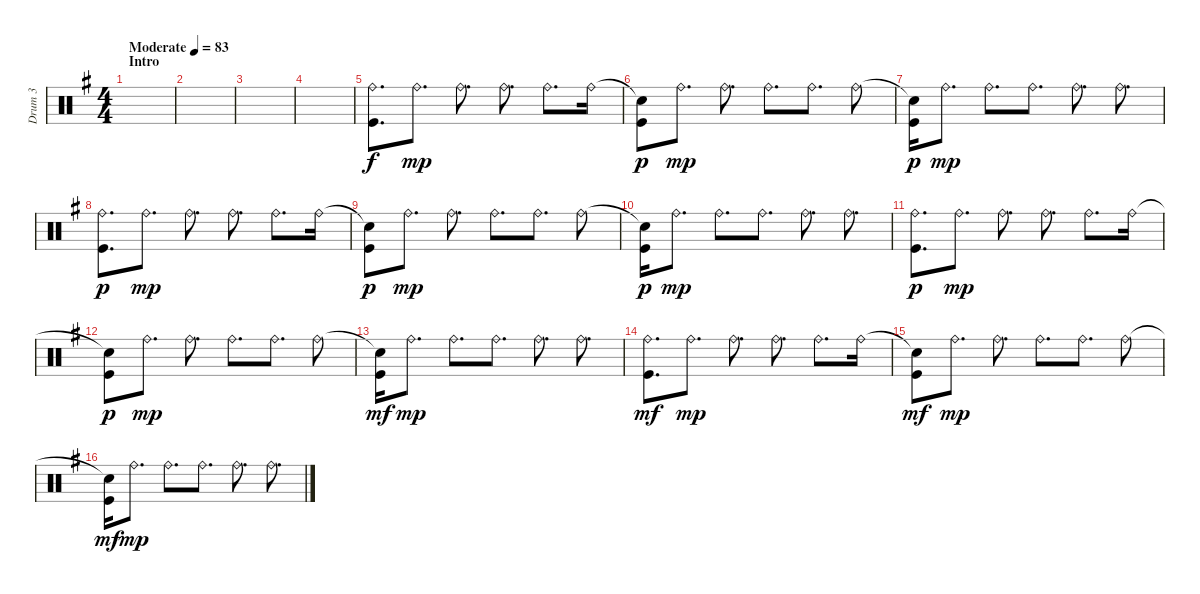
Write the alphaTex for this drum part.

\track ("Drum 3" "Drum 3") {instrument percussion}
\staff {score}
\articulation defaults
\ts (4 4)
\section ("" "Intro")
\tempo (83 "Moderate")
\clef neutral
\ks eminor
|
|
|
|
("Ride (bell)" "Kick (hit)").8{d} "Ride (bell)".8{d dy mp} "Ride (bell)".8{d} "Ride (bell)".8{d} "Ride (bell)".8{d} "Ride (bell)".16 |
("Snare (hit)"{t} "Kick (hit)").8{dy p} "Ride (bell)".8{d dy mp} "Ride (bell)".8{d} "Ride (bell)".8{d} "Ride (bell)".8{d} "Ride (bell)".8 |
("Snare (hit)"{t} "Kick (hit)").16{dy p} "Ride (bell)".8{d dy mp} "Ride (bell)".8{d} "Ride (bell)".8{d} "Ride (bell)".8{d} "Ride (bell)".8{d} |
("Ride (bell)" "Kick (hit)").8{d dy p} "Ride (bell)".8{d dy mp} "Ride (bell)".8{d} "Ride (bell)".8{d} "Ride (bell)".8{d} "Ride (bell)".16 |
("Snare (hit)"{t} "Kick (hit)").8{dy p} "Ride (bell)".8{d dy mp} "Ride (bell)".8{d} "Ride (bell)".8{d} "Ride (bell)".8{d} "Ride (bell)".8 |
("Snare (hit)"{t} "Kick (hit)").16{dy p} "Ride (bell)".8{d dy mp} "Ride (bell)".8{d} "Ride (bell)".8{d} "Ride (bell)".8{d} "Ride (bell)".8{d} |
("Ride (bell)" "Kick (hit)").8{d dy p} "Ride (bell)".8{d dy mp} "Ride (bell)".8{d} "Ride (bell)".8{d} "Ride (bell)".8{d} "Ride (bell)".16 |
("Snare (hit)"{t} "Kick (hit)").8{dy p} "Ride (bell)".8{d dy mp} "Ride (bell)".8{d} "Ride (bell)".8{d} "Ride (bell)".8{d} "Ride (bell)".8 |
("Snare (hit)"{t} "Kick (hit)").16{dy mf} "Ride (bell)".8{d dy mp} "Ride (bell)".8{d} "Ride (bell)".8{d} "Ride (bell)".8{d} "Ride (bell)".8{d} |
("Ride (bell)" "Kick (hit)").8{d dy mf} "Ride (bell)".8{d dy mp} "Ride (bell)".8{d} "Ride (bell)".8{d} "Ride (bell)".8{d} "Ride (bell)".16 |
("Snare (hit)"{t} "Kick (hit)").8{dy mf} "Ride (bell)".8{d dy mp} "Ride (bell)".8{d} "Ride (bell)".8{d} "Ride (bell)".8{d} "Ride (bell)".8 |
("Snare (hit)"{t} "Kick (hit)").16{dy mf} "Ride (bell)".8{d dy mp} "Ride (bell)".8{d} "Ride (bell)".8{d} "Ride (bell)".8{d} "Ride (bell)".8{d}
